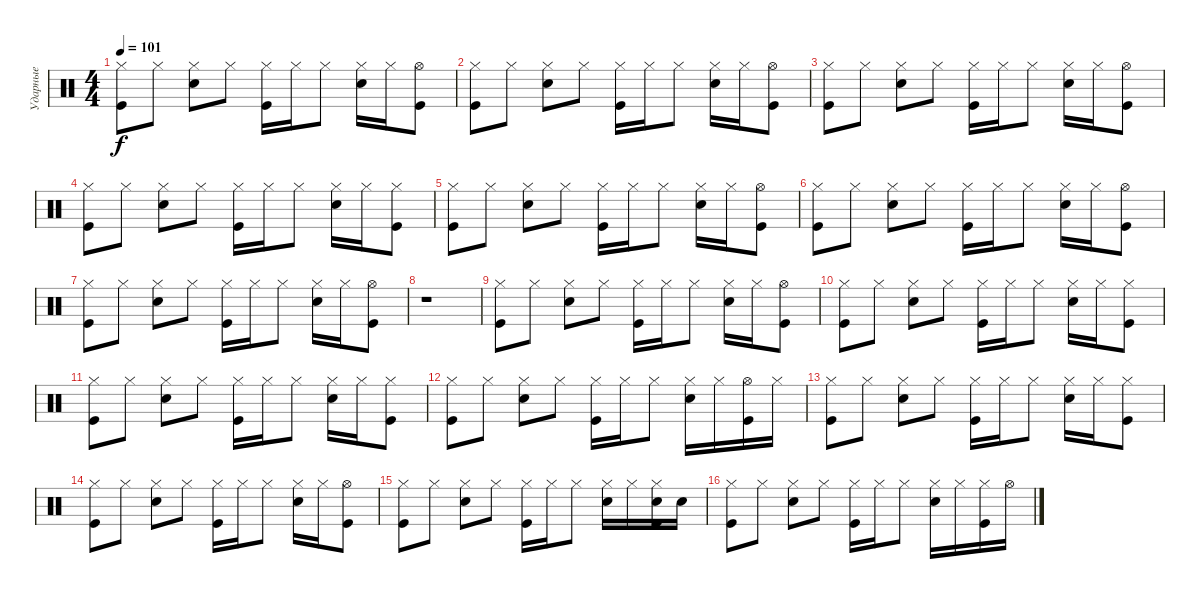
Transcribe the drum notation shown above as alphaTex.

\track ("Ударные" "Ударные") {instrument percussion}
\staff {score}
\articulation defaults
\ts (4 4)
\tempo 101
\clef neutral
\ks c
("Hi-Hat (closed)" "Kick (hit)").8{dy f} "Hi-Hat (closed)".8 ("Hi-Hat (closed)" "Snare (hit) 2").8 "Hi-Hat (closed)".8 ("Hi-Hat (closed)" "Kick (hit)").16 "Hi-Hat (closed)".16 "Hi-Hat (closed)".8 ("Snare (hit) 2" "Hi-Hat (closed)").16 "Hi-Hat (closed)".16 ("Hi-Hat (open)" "Kick (hit)").8 |
("Hi-Hat (closed)" "Kick (hit)").8 "Hi-Hat (closed)".8 ("Hi-Hat (closed)" "Snare (hit) 2").8 "Hi-Hat (closed)".8 ("Hi-Hat (closed)" "Kick (hit)").16 "Hi-Hat (closed)".16 "Hi-Hat (closed)".8 ("Snare (hit) 2" "Hi-Hat (closed)").16 "Hi-Hat (closed)".16 ("Hi-Hat (open)" "Kick (hit)").8 |
("Hi-Hat (closed)" "Kick (hit)").8 "Hi-Hat (closed)".8 ("Hi-Hat (closed)" "Snare (hit) 2").8 "Hi-Hat (closed)".8 ("Hi-Hat (closed)" "Kick (hit)").16 "Hi-Hat (closed)".16 "Hi-Hat (closed)".8 ("Snare (hit) 2" "Hi-Hat (closed)").16 "Hi-Hat (closed)".16 ("Hi-Hat (open)" "Kick (hit)").8 |
("Hi-Hat (closed)" "Kick (hit)").8 "Hi-Hat (closed)".8 ("Hi-Hat (closed)" "Snare (hit) 2").8 "Hi-Hat (closed)".8 ("Hi-Hat (closed)" "Kick (hit)").16 "Hi-Hat (closed)".16 "Hi-Hat (closed)".8 ("Snare (hit) 2" "Hi-Hat (closed)").16 "Hi-Hat (closed)".16 ("Hi-Hat (closed)" "Kick (hit)").8 |
("Hi-Hat (closed)" "Kick (hit)").8 "Hi-Hat (closed)".8 ("Hi-Hat (closed)" "Snare (hit) 2").8 "Hi-Hat (closed)".8 ("Hi-Hat (closed)" "Kick (hit)").16 "Hi-Hat (closed)".16 "Hi-Hat (closed)".8 ("Snare (hit) 2" "Hi-Hat (closed)").16 "Hi-Hat (closed)".16 ("Hi-Hat (open)" "Kick (hit)").8 |
("Hi-Hat (closed)" "Kick (hit)").8 "Hi-Hat (closed)".8 ("Hi-Hat (closed)" "Snare (hit) 2").8 "Hi-Hat (closed)".8 ("Hi-Hat (closed)" "Kick (hit)").16 "Hi-Hat (closed)".16 "Hi-Hat (closed)".8 ("Snare (hit) 2" "Hi-Hat (closed)").16 "Hi-Hat (closed)".16 ("Hi-Hat (open)" "Kick (hit)").8 |
("Hi-Hat (closed)" "Kick (hit)").8 "Hi-Hat (closed)".8 ("Hi-Hat (closed)" "Snare (hit) 2").8 "Hi-Hat (closed)".8 ("Hi-Hat (closed)" "Kick (hit)").16 "Hi-Hat (closed)".16 "Hi-Hat (closed)".8 ("Snare (hit) 2" "Hi-Hat (closed)").16 "Hi-Hat (closed)".16 ("Hi-Hat (open)" "Kick (hit)").8 |
r.1 |
("Hi-Hat (closed)" "Kick (hit)").8 "Hi-Hat (closed)".8 ("Hi-Hat (closed)" "Snare (hit) 2").8 "Hi-Hat (closed)".8 ("Hi-Hat (closed)" "Kick (hit)").16 "Hi-Hat (closed)".16 "Hi-Hat (closed)".8 ("Snare (hit) 2" "Hi-Hat (closed)").16 "Hi-Hat (closed)".16 ("Hi-Hat (open)" "Kick (hit)").8 |
("Hi-Hat (closed)" "Kick (hit)").8 "Hi-Hat (closed)".8 ("Hi-Hat (closed)" "Snare (hit) 2").8 "Hi-Hat (closed)".8 ("Hi-Hat (closed)" "Kick (hit)").16 "Hi-Hat (closed)".16 "Hi-Hat (closed)".8 ("Snare (hit) 2" "Hi-Hat (closed)").16 "Hi-Hat (closed)".16 ("Hi-Hat (closed)" "Kick (hit)").8 |
("Hi-Hat (closed)" "Kick (hit)").8 "Hi-Hat (closed)".8 ("Hi-Hat (closed)" "Snare (hit) 2").8 "Hi-Hat (closed)".8 ("Hi-Hat (closed)" "Kick (hit)").16 "Hi-Hat (closed)".16 "Hi-Hat (closed)".8 ("Snare (hit) 2" "Hi-Hat (closed)").16 "Hi-Hat (closed)".16 ("Hi-Hat (closed)" "Kick (hit)").8 |
("Hi-Hat (closed)" "Kick (hit)").8 "Hi-Hat (closed)".8 ("Hi-Hat (closed)" "Snare (hit) 2").8 "Hi-Hat (closed)".8 ("Hi-Hat (closed)" "Kick (hit)").16 "Hi-Hat (closed)".16 "Hi-Hat (closed)".8 ("Snare (hit) 2" "Hi-Hat (closed)").16 "Hi-Hat (closed)".16 ("Hi-Hat (open)" "Kick (hit)").16 "Hi-Hat (closed)".16 |
("Hi-Hat (closed)" "Kick (hit)").8 "Hi-Hat (closed)".8 ("Hi-Hat (closed)" "Snare (hit) 2").8 "Hi-Hat (closed)".8 ("Hi-Hat (closed)" "Kick (hit)").16 "Hi-Hat (closed)".16 "Hi-Hat (closed)".8 ("Snare (hit) 2" "Hi-Hat (closed)").16 "Hi-Hat (closed)".16 ("Hi-Hat (closed)" "Kick (hit)").8 |
("Hi-Hat (closed)" "Kick (hit)").8 "Hi-Hat (closed)".8 ("Hi-Hat (closed)" "Snare (hit) 2").8 "Hi-Hat (closed)".8 ("Hi-Hat (closed)" "Kick (hit)").16 "Hi-Hat (closed)".16 "Hi-Hat (closed)".8 ("Snare (hit) 2" "Hi-Hat (closed)").16 "Hi-Hat (closed)".16 ("Hi-Hat (open)" "Kick (hit)").8 |
("Hi-Hat (closed)" "Kick (hit)").8 "Hi-Hat (closed)".8 ("Hi-Hat (closed)" "Snare (hit) 2").8 "Hi-Hat (closed)".8 ("Hi-Hat (closed)" "Kick (hit)").16 "Hi-Hat (closed)".16 "Hi-Hat (closed)".8 ("Snare (hit) 2" "Hi-Hat (closed)").16 "Hi-Hat (closed)".16 ("Hi-Hat (closed)" "Snare (hit) 2" "Kick (hit)").16 "Snare (hit) 2".16 |
("Hi-Hat (closed)" "Kick (hit)").8 "Hi-Hat (closed)".8 ("Hi-Hat (closed)" "Snare (hit) 2").8 "Hi-Hat (closed)".8 ("Hi-Hat (closed)" "Kick (hit)").16 "Hi-Hat (closed)".16 "Hi-Hat (closed)".8 ("Snare (hit) 2" "Hi-Hat (closed)").16 "Hi-Hat (closed)".16 ("Hi-Hat (closed)" "Kick (hit)").16 "Hi-Hat (open)".16
